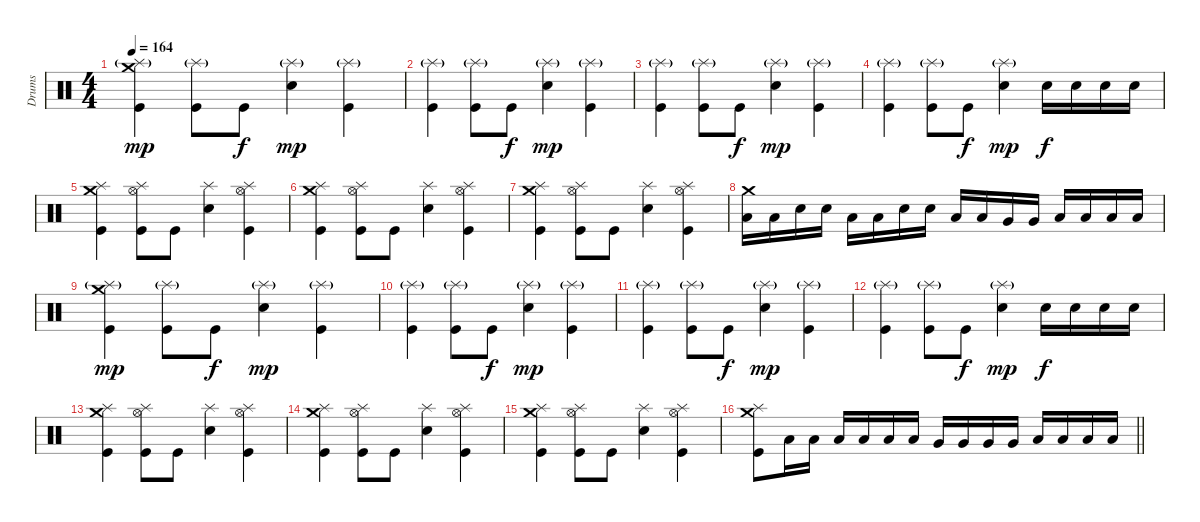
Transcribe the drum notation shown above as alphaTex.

\track ("Drums" "Drums") {instrument percussion}
\staff {score}
\articulation defaults
\ts (4 4)
\tempo 164
\clef neutral
\ks c
("Crash medium (hit)" "Splash (hit)"{g} "Kick (hit)").4{dy mp} ("Splash (hit)"{g} "Kick (hit)").8 "Kick (hit)".8{dy f} ("Splash (hit)"{g} "Electric Snare (hit)").4{dy mp} ("Splash (hit)"{g} "Kick (hit)").4 |
("Splash (hit)"{g} "Kick (hit)").4 ("Splash (hit)"{g} "Kick (hit)").8 "Kick (hit)".8{dy f} ("Splash (hit)"{g} "Electric Snare (hit)").4{dy mp} ("Splash (hit)"{g} "Kick (hit)").4 |
("Splash (hit)"{g} "Kick (hit)").4 ("Splash (hit)"{g} "Kick (hit)").8 "Kick (hit)".8{dy f} ("Splash (hit)"{g} "Electric Snare (hit)").4{dy mp} ("Splash (hit)"{g} "Kick (hit)").4 |
("Splash (hit)"{g} "Kick (hit)").4 ("Splash (hit)"{g} "Kick (hit)").8 "Kick (hit)".8{dy f} ("Splash (hit)"{g} "Electric Snare (hit)").4{dy mp} "Electric Snare (hit)".16{dy f} "Electric Snare (hit)".16 "Electric Snare (hit)".16 "Electric Snare (hit)".16 |
("Crash medium (hit)" "Splash (hit)" "Kick (hit)").4 ("Hi-Hat (open)" "Splash (hit)" "Kick (hit)").8 "Kick (hit)".8 ("Splash (hit)" "Electric Snare (hit)").4 ("Hi-Hat (open)" "Splash (hit)" "Kick (hit)").4 |
("Crash medium (hit)" "Splash (hit)" "Kick (hit)").4 ("Hi-Hat (open)" "Splash (hit)" "Kick (hit)").8 "Kick (hit)".8 ("Splash (hit)" "Electric Snare (hit)").4 ("Hi-Hat (open)" "Splash (hit)" "Kick (hit)").4 |
("Crash medium (hit)" "Splash (hit)" "Kick (hit)").4 ("Hi-Hat (open)" "Splash (hit)" "Kick (hit)").8 "Kick (hit)".8 ("Splash (hit)" "Electric Snare (hit)").4 ("Hi-Hat (open)" "Splash (hit)" "Kick (hit)").4 |
("Crash medium (hit)" "Low Tom (hit)").16 "Low Tom (hit)".16 "Electric Snare (hit)".16 "Electric Snare (hit)".16 "Low Tom (hit)".16 "Low Tom (hit)".16 "Electric Snare (hit)".16 "Electric Snare (hit)".16 "Low Tom (hit)".16 "Low Tom (hit)".16 "Very Low Tom (hit)".16 "Very Low Tom (hit)".16 "Low Floor Tom (hit)".16 "Low Floor Tom (hit)".16 "Low Floor Tom (hit)".16 "Low Floor Tom (hit)".16 |
("Crash medium (hit)" "Splash (hit)"{g} "Kick (hit)").4{dy mp} ("Splash (hit)"{g} "Kick (hit)").8 "Kick (hit)".8{dy f} ("Splash (hit)"{g} "Electric Snare (hit)").4{dy mp} ("Splash (hit)"{g} "Kick (hit)").4 |
("Splash (hit)"{g} "Kick (hit)").4 ("Splash (hit)"{g} "Kick (hit)").8 "Kick (hit)".8{dy f} ("Splash (hit)"{g} "Electric Snare (hit)").4{dy mp} ("Splash (hit)"{g} "Kick (hit)").4 |
("Splash (hit)"{g} "Kick (hit)").4 ("Splash (hit)"{g} "Kick (hit)").8 "Kick (hit)".8{dy f} ("Splash (hit)"{g} "Electric Snare (hit)").4{dy mp} ("Splash (hit)"{g} "Kick (hit)").4 |
("Splash (hit)"{g} "Kick (hit)").4 ("Splash (hit)"{g} "Kick (hit)").8 "Kick (hit)".8{dy f} ("Splash (hit)"{g} "Electric Snare (hit)").4{dy mp} "Electric Snare (hit)".16{dy f} "Electric Snare (hit)".16 "Electric Snare (hit)".16 "Electric Snare (hit)".16 |
("Crash medium (hit)" "Splash (hit)" "Kick (hit)").4 ("Hi-Hat (open)" "Splash (hit)" "Kick (hit)").8 "Kick (hit)".8 ("Splash (hit)" "Electric Snare (hit)").4 ("Hi-Hat (open)" "Splash (hit)" "Kick (hit)").4 |
("Crash medium (hit)" "Splash (hit)" "Kick (hit)").4 ("Hi-Hat (open)" "Splash (hit)" "Kick (hit)").8 "Kick (hit)".8 ("Splash (hit)" "Electric Snare (hit)").4 ("Hi-Hat (open)" "Splash (hit)" "Kick (hit)").4 |
("Crash medium (hit)" "Splash (hit)" "Kick (hit)").4 ("Hi-Hat (open)" "Splash (hit)" "Kick (hit)").8 "Kick (hit)".8 ("Splash (hit)" "Electric Snare (hit)").4 ("Hi-Hat (open)" "Splash (hit)" "Kick (hit)").4 |
\barLineRight lightlight
("Crash medium (hit)" "Splash (hit)" "Kick (hit)").8 "Low Tom (hit)".16 "Low Tom (hit)".16 "Low Tom (hit)".16 "Low Tom (hit)".16 "Low Tom (hit)".16 "Low Tom (hit)".16 "Very Low Tom (hit)".16 "Very Low Tom (hit)".16 "Very Low Tom (hit)".16 "Very Low Tom (hit)".16 "Low Floor Tom (hit)".16 "Low Floor Tom (hit)".16 "Low Floor Tom (hit)".16 "Low Floor Tom (hit)".16
